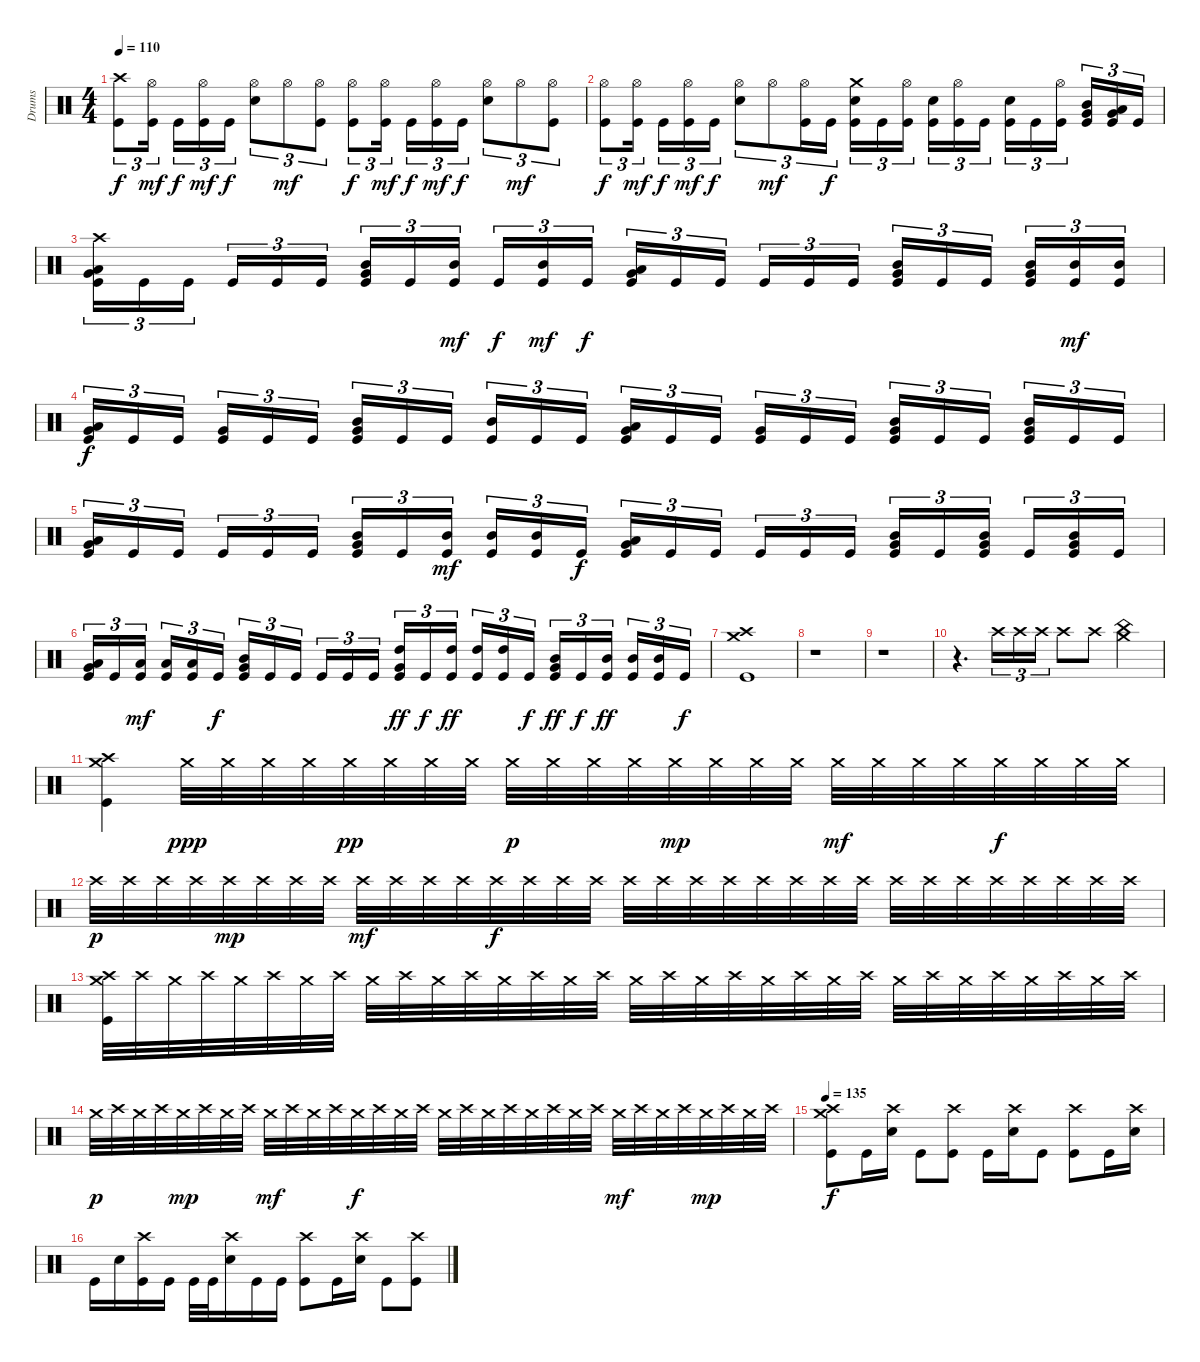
\track ("Drums" "Drums") {instrument percussion}
\staff {score}
\articulation defaults
\ts (4 4)
\tempo 110
\clef neutral
\ks c
("Crash high (hit)" "Kick (hit)").8{tu (3 2) dy f} ("Hi-Hat (open)" "Kick (hit)").16{tu (3 2) dy mf} "Kick (hit)".16{tu (3 2) dy f} ("Hi-Hat (open)" "Kick (hit)").16{tu (3 2) dy mf} "Kick (hit)".16{tu (3 2) dy f} ("Hi-Hat (open)" "Electric Snare (hit)").8{tu (3 2)} "Hi-Hat (open)".8{tu (3 2) dy mf} ("Hi-Hat (open)" "Kick (hit)").8{tu (3 2)} ("Hi-Hat (open)" "Kick (hit)").8{tu (3 2) dy f} ("Hi-Hat (open)" "Kick (hit)").16{tu (3 2) dy mf} "Kick (hit)".16{tu (3 2) dy f} ("Hi-Hat (open)" "Kick (hit)").16{tu (3 2) dy mf} "Kick (hit)".16{tu (3 2) dy f} ("Hi-Hat (open)" "Electric Snare (hit)").8{tu (3 2)} "Hi-Hat (open)".8{tu (3 2) dy mf} ("Hi-Hat (open)" "Kick (hit)").8{tu (3 2)} |
("Hi-Hat (open)" "Kick (hit)").8{tu (3 2) dy f} ("Hi-Hat (open)" "Kick (hit)").16{tu (3 2) dy mf} "Kick (hit)".16{tu (3 2) dy f} ("Hi-Hat (open)" "Kick (hit)").16{tu (3 2) dy mf} "Kick (hit)".16{tu (3 2) dy f} ("Hi-Hat (open)" "Electric Snare (hit)").8{tu (3 2)} "Hi-Hat (open)".8{tu (3 2) dy mf} ("Hi-Hat (open)" "Kick (hit)").16{tu (3 2)} "Kick (hit)".16{tu (3 2) dy f} ("Crash medium (hit)" "Electric Snare (hit)" "Kick (hit)").16{tu (3 2)} "Kick (hit)".16{tu (3 2)} ("Hi-Hat (open)" "Kick (hit)").16{tu (3 2)} ("Electric Snare (hit)" "Kick (hit)").16{tu (3 2)} ("Hi-Hat (open)" "Kick (hit)").16{tu (3 2)} "Kick (hit)".16{tu (3 2)} ("Electric Snare (hit)" "Kick (hit)").16{tu (3 2)} "Kick (hit)".16{tu (3 2)} ("Hi-Hat (open)" "Kick (hit)").16{tu (3 2)} ("Mid Tom (hit)" "Very Low Tom (hit)" "Kick (hit)").16{tu (3 2)} ("Low Tom (hit)" "Very Low Tom (hit)" "Kick (hit)").16{tu (3 2)} "Kick (hit)".16{tu (3 2)} |
("Crash high (hit)" "Low Tom (hit)" "Very Low Tom (hit)" "Kick (hit)").16{tu (3 2)} "Kick (hit)".16{tu (3 2)} "Kick (hit)".16{tu (3 2)} "Kick (hit)".16{tu (3 2)} "Kick (hit)".16{tu (3 2)} "Kick (hit)".16{tu (3 2)} ("Mid Tom (hit)" "Very Low Tom (hit)" "Kick (hit)").16{tu (3 2)} "Kick (hit)".16{tu (3 2)} ("Mid Tom (hit)" "Kick (hit)").16{tu (3 2) dy mf} "Kick (hit)".16{tu (3 2) dy f} ("Mid Tom (hit)" "Kick (hit)").16{tu (3 2) dy mf} "Kick (hit)".16{tu (3 2) dy f} ("Low Tom (hit)" "Very Low Tom (hit)" "Kick (hit)").16{tu (3 2)} "Kick (hit)".16{tu (3 2)} "Kick (hit)".16{tu (3 2)} "Kick (hit)".16{tu (3 2)} "Kick (hit)".16{tu (3 2)} "Kick (hit)".16{tu (3 2)} ("Mid Tom (hit)" "Very Low Tom (hit)" "Kick (hit)").16{tu (3 2)} "Kick (hit)".16{tu (3 2)} "Kick (hit)".16{tu (3 2)} ("Mid Tom (hit)" "Very Low Tom (hit)" "Kick (hit)").16{tu (3 2)} ("Mid Tom (hit)" "Kick (hit)").16{tu (3 2) dy mf} ("Mid Tom (hit)" "Kick (hit)").16{tu (3 2)} |
("Low Tom (hit)" "Very Low Tom (hit)" "Kick (hit)").16{tu (3 2) dy f} "Kick (hit)".16{tu (3 2)} "Kick (hit)".16{tu (3 2)} ("Very Low Tom (hit)" "Kick (hit)").16{tu (3 2)} "Kick (hit)".16{tu (3 2)} "Kick (hit)".16{tu (3 2)} ("Mid Tom (hit)" "Very Low Tom (hit)" "Kick (hit)").16{tu (3 2)} "Kick (hit)".16{tu (3 2)} "Kick (hit)".16{tu (3 2)} ("Mid Tom (hit)" "Kick (hit)").16{tu (3 2)} "Kick (hit)".16{tu (3 2)} "Kick (hit)".16{tu (3 2)} ("Low Tom (hit)" "Very Low Tom (hit)" "Kick (hit)").16{tu (3 2)} "Kick (hit)".16{tu (3 2)} "Kick (hit)".16{tu (3 2)} ("Very Low Tom (hit)" "Kick (hit)").16{tu (3 2)} "Kick (hit)".16{tu (3 2)} "Kick (hit)".16{tu (3 2)} ("Mid Tom (hit)" "Very Low Tom (hit)" "Kick (hit)").16{tu (3 2)} "Kick (hit)".16{tu (3 2)} "Kick (hit)".16{tu (3 2)} ("Mid Tom (hit)" "Very Low Tom (hit)" "Kick (hit)").16{tu (3 2)} "Kick (hit)".16{tu (3 2)} "Kick (hit)".16{tu (3 2)} |
("Low Tom (hit)" "Very Low Tom (hit)" "Kick (hit)").16{tu (3 2)} "Kick (hit)".16{tu (3 2)} "Kick (hit)".16{tu (3 2)} "Kick (hit)".16{tu (3 2)} "Kick (hit)".16{tu (3 2)} "Kick (hit)".16{tu (3 2)} ("Mid Tom (hit)" "Very Low Tom (hit)" "Kick (hit)").16{tu (3 2)} "Kick (hit)".16{tu (3 2)} ("Mid Tom (hit)" "Kick (hit)").16{tu (3 2) dy mf} ("Mid Tom (hit)" "Kick (hit)").16{tu (3 2)} ("Mid Tom (hit)" "Kick (hit)").16{tu (3 2)} "Kick (hit)".16{tu (3 2) dy f} ("Low Tom (hit)" "Very Low Tom (hit)" "Kick (hit)").16{tu (3 2)} "Kick (hit)".16{tu (3 2)} "Kick (hit)".16{tu (3 2)} "Kick (hit)".16{tu (3 2)} "Kick (hit)".16{tu (3 2)} "Kick (hit)".16{tu (3 2)} ("Mid Tom (hit)" "Very Low Tom (hit)" "Kick (hit)").16{tu (3 2)} "Kick (hit)".16{tu (3 2)} ("Mid Tom (hit)" "Very Low Tom (hit)" "Kick (hit)").16{tu (3 2)} "Kick (hit)".16{tu (3 2)} ("Mid Tom (hit)" "Very Low Tom (hit)" "Kick (hit)").16{tu (3 2)} "Kick (hit)".16{tu (3 2)} |
("Low Tom (hit)" "Very Low Tom (hit)" "Kick (hit)").16{tu (3 2)} "Kick (hit)".16{tu (3 2)} ("Low Tom (hit)" "Kick (hit)").16{tu (3 2) dy mf} ("Low Tom (hit)" "Kick (hit)").16{tu (3 2)} ("Low Tom (hit)" "Kick (hit)").16{tu (3 2)} "Kick (hit)".16{tu (3 2) dy f} ("Mid Tom (hit)" "Very Low Tom (hit)" "Kick (hit)").16{tu (3 2)} "Kick (hit)".16{tu (3 2)} "Kick (hit)".16{tu (3 2)} "Kick (hit)".16{tu (3 2)} "Kick (hit)".16{tu (3 2)} "Kick (hit)".16{tu (3 2)} ("High Tom (hit)" "Very Low Tom (hit)" "Kick (hit)").16{tu (3 2) dy ff} "Kick (hit)".16{tu (3 2) dy f} ("High Tom (hit)" "Kick (hit)").16{tu (3 2) dy ff} ("High Tom (hit)" "Kick (hit)").16{tu (3 2)} ("High Tom (hit)" "Kick (hit)").16{tu (3 2)} "Kick (hit)".16{tu (3 2) dy f} ("Mid Tom (hit)" "Very Low Tom (hit)" "Kick (hit)").16{tu (3 2) dy ff} "Kick (hit)".16{tu (3 2) dy f} ("Mid Tom (hit)" "Kick (hit)").16{tu (3 2) dy ff} ("Mid Tom (hit)" "Kick (hit)").16{tu (3 2)} ("Mid Tom (hit)" "Kick (hit)").16{tu (3 2)} "Kick (hit)".16{tu (3 2) dy f} |
("Crash high (hit)" "Crash medium (hit)" "Kick (hit)").1 |
r.1 |
r.1 |
r.4{d} "Crash high (hit)".16{tu (3 2)} "Crash high (hit)".16{tu (3 2)} "Crash high (hit)".16{tu (3 2)} "Crash high (hit)".8 "Crash high (hit)".8 ("Crash medium (hit)" "China (hit)").4 |
("Crash high (hit)" "Crash medium (hit)" "Kick (hit)").4 "Crash medium (hit)".32{dy ppp} "Crash medium (hit)".32 "Crash medium (hit)".32 "Crash medium (hit)".32 "Crash medium (hit)".32{dy pp} "Crash medium (hit)".32 "Crash medium (hit)".32 "Crash medium (hit)".32 "Crash medium (hit)".32{dy p} "Crash medium (hit)".32 "Crash medium (hit)".32 "Crash medium (hit)".32 "Crash medium (hit)".32{dy mp} "Crash medium (hit)".32 "Crash medium (hit)".32 "Crash medium (hit)".32 "Crash medium (hit)".32{dy mf} "Crash medium (hit)".32 "Crash medium (hit)".32 "Crash medium (hit)".32 "Crash medium (hit)".32{dy f} "Crash medium (hit)".32 "Crash medium (hit)".32 "Crash medium (hit)".32 |
"Crash high (hit)".32{dy p} "Crash high (hit)".32 "Crash high (hit)".32 "Crash high (hit)".32 "Crash high (hit)".32{dy mp} "Crash high (hit)".32 "Crash high (hit)".32 "Crash high (hit)".32 "Crash high (hit)".32{dy mf} "Crash high (hit)".32 "Crash high (hit)".32 "Crash high (hit)".32 "Crash high (hit)".32{dy f} "Crash high (hit)".32 "Crash high (hit)".32 "Crash high (hit)".32 "Crash high (hit)".32 "Crash high (hit)".32 "Crash high (hit)".32 "Crash high (hit)".32 "Crash high (hit)".32 "Crash high (hit)".32 "Crash high (hit)".32 "Crash high (hit)".32 "Crash high (hit)".32 "Crash high (hit)".32 "Crash high (hit)".32 "Crash high (hit)".32 "Crash high (hit)".32 "Crash high (hit)".32 "Crash high (hit)".32 "Crash high (hit)".32 |
("Crash high (hit)" "Crash medium (hit)" "Kick (hit)").32 "Crash high (hit)".32 "Crash medium (hit)".32 "Crash high (hit)".32 "Crash medium (hit)".32 "Crash high (hit)".32 "Crash medium (hit)".32 "Crash high (hit)".32 "Crash medium (hit)".32 "Crash high (hit)".32 "Crash medium (hit)".32 "Crash high (hit)".32 "Crash medium (hit)".32 "Crash high (hit)".32 "Crash medium (hit)".32 "Crash high (hit)".32 "Crash medium (hit)".32 "Crash high (hit)".32 "Crash medium (hit)".32 "Crash high (hit)".32 "Crash medium (hit)".32 "Crash high (hit)".32 "Crash medium (hit)".32 "Crash high (hit)".32 "Crash medium (hit)".32 "Crash high (hit)".32 "Crash medium (hit)".32 "Crash high (hit)".32 "Crash medium (hit)".32 "Crash high (hit)".32 "Crash medium (hit)".32 "Crash high (hit)".32 |
"Crash medium (hit)".32{dy p} "Crash high (hit)".32 "Crash medium (hit)".32 "Crash high (hit)".32 "Crash medium (hit)".32{dy mp} "Crash high (hit)".32 "Crash medium (hit)".32 "Crash high (hit)".32 "Crash medium (hit)".32{dy mf} "Crash high (hit)".32 "Crash medium (hit)".32 "Crash high (hit)".32 "Crash medium (hit)".32{dy f} "Crash high (hit)".32 "Crash medium (hit)".32 "Crash high (hit)".32 "Crash medium (hit)".32 "Crash high (hit)".32 "Crash medium (hit)".32 "Crash high (hit)".32 "Crash medium (hit)".32 "Crash high (hit)".32 "Crash medium (hit)".32 "Crash high (hit)".32 "Crash medium (hit)".32{dy mf} "Crash high (hit)".32 "Crash medium (hit)".32 "Crash high (hit)".32 "Crash medium (hit)".32{dy mp} "Crash high (hit)".32 "Crash medium (hit)".32 "Crash high (hit)".32 |
\tempo 135
("Crash medium (hit)" "Crash high (hit)" "Kick (hit)").8{dy f} "Kick (hit)".16 ("Crash high (hit)" "Electric Snare (hit)").16 "Kick (hit)".8 ("Crash high (hit)" "Kick (hit)").8 "Kick (hit)".16 ("Crash high (hit)" "Electric Snare (hit)").16 "Kick (hit)".8 ("Crash high (hit)" "Kick (hit)").8 "Kick (hit)".16 ("Crash high (hit)" "Electric Snare (hit)").16 |
"Kick (hit)".16 "Electric Snare (hit)".16 ("Crash high (hit)" "Kick (hit)").16 "Kick (hit)".16 "Kick (hit)".32 "Kick (hit)".32 ("Crash high (hit)" "Electric Snare (hit)").16 "Kick (hit)".16 "Kick (hit)".16 ("Crash high (hit)" "Kick (hit)").8 "Kick (hit)".16 ("Crash high (hit)" "Electric Snare (hit)").16 "Kick (hit)".8 ("Crash high (hit)" "Kick (hit)").8
